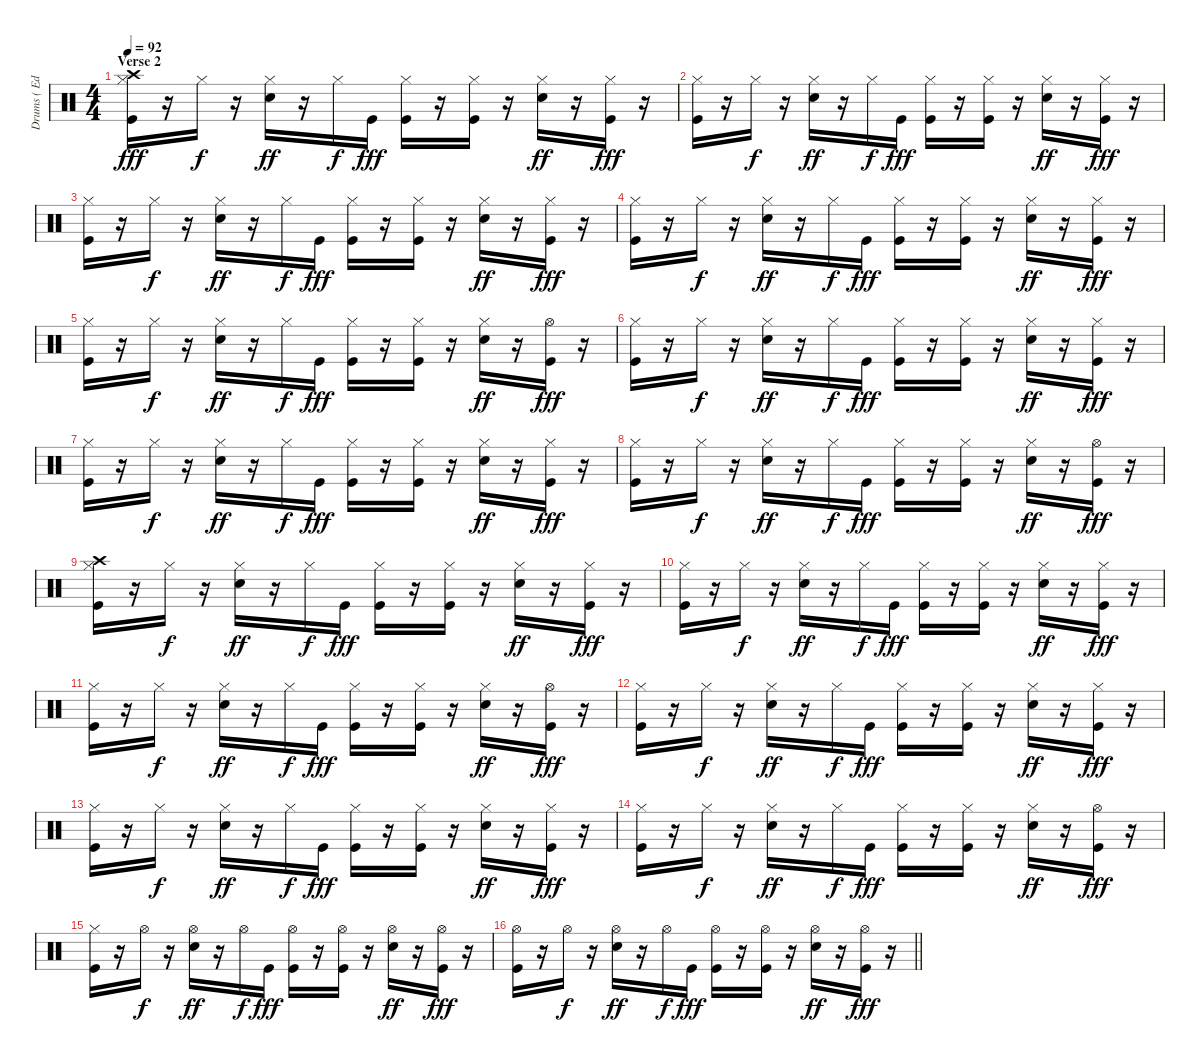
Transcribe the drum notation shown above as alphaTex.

\track ("Drums ( Edward O'Brien )" "Drums ( Ed") {instrument percussion}
\staff {score}
\articulation defaults
\ts (4 4)
\section ("" "Verse 2")
\tempo 92
\clef neutral
\ks c
("Crash high (hit)" "Hi-Hat (closed)" "Kick (hit)").16{dy fff} r.16 "Hi-Hat (closed)".16{dy f} r.16 ("Hi-Hat (closed)" "Electric Snare (hit)").16{dy ff} r.16 "Hi-Hat (closed)".16{dy f} "Kick (hit)".16{dy fff} ("Hi-Hat (closed)" "Kick (hit)").16 r.16 ("Hi-Hat (closed)" "Kick (hit)").16 r.16 ("Hi-Hat (closed)" "Electric Snare (hit)").16{dy ff} r.16 ("Hi-Hat (closed)" "Kick (hit)").16{dy fff} r.16 |
("Hi-Hat (closed)" "Kick (hit)").16 r.16 "Hi-Hat (closed)".16{dy f} r.16 ("Hi-Hat (closed)" "Electric Snare (hit)").16{dy ff} r.16 "Hi-Hat (closed)".16{dy f} "Kick (hit)".16{dy fff} ("Hi-Hat (closed)" "Kick (hit)").16 r.16 ("Hi-Hat (closed)" "Kick (hit)").16 r.16 ("Hi-Hat (closed)" "Electric Snare (hit)").16{dy ff} r.16 ("Hi-Hat (closed)" "Kick (hit)").16{dy fff} r.16 |
("Hi-Hat (closed)" "Kick (hit)").16 r.16 "Hi-Hat (closed)".16{dy f} r.16 ("Hi-Hat (closed)" "Electric Snare (hit)").16{dy ff} r.16 "Hi-Hat (closed)".16{dy f} "Kick (hit)".16{dy fff} ("Hi-Hat (closed)" "Kick (hit)").16 r.16 ("Hi-Hat (closed)" "Kick (hit)").16 r.16 ("Hi-Hat (closed)" "Electric Snare (hit)").16{dy ff} r.16 ("Hi-Hat (closed)" "Kick (hit)").16{dy fff} r.16 |
("Hi-Hat (closed)" "Kick (hit)").16 r.16 "Hi-Hat (closed)".16{dy f} r.16 ("Hi-Hat (closed)" "Electric Snare (hit)").16{dy ff} r.16 "Hi-Hat (closed)".16{dy f} "Kick (hit)".16{dy fff} ("Hi-Hat (closed)" "Kick (hit)").16 r.16 ("Hi-Hat (closed)" "Kick (hit)").16 r.16 ("Hi-Hat (closed)" "Electric Snare (hit)").16{dy ff} r.16 ("Hi-Hat (closed)" "Kick (hit)").16{dy fff} r.16 |
("Hi-Hat (closed)" "Kick (hit)").16 r.16 "Hi-Hat (closed)".16{dy f} r.16 ("Hi-Hat (closed)" "Electric Snare (hit)").16{dy ff} r.16 "Hi-Hat (closed)".16{dy f} "Kick (hit)".16{dy fff} ("Hi-Hat (closed)" "Kick (hit)").16 r.16 ("Hi-Hat (closed)" "Kick (hit)").16 r.16 ("Hi-Hat (closed)" "Electric Snare (hit)").16{dy ff} r.16 ("Hi-Hat (open)" "Kick (hit)").16{dy fff} r.16 |
("Hi-Hat (closed)" "Kick (hit)").16 r.16 "Hi-Hat (closed)".16{dy f} r.16 ("Hi-Hat (closed)" "Electric Snare (hit)").16{dy ff} r.16 "Hi-Hat (closed)".16{dy f} "Kick (hit)".16{dy fff} ("Hi-Hat (closed)" "Kick (hit)").16 r.16 ("Hi-Hat (closed)" "Kick (hit)").16 r.16 ("Hi-Hat (closed)" "Electric Snare (hit)").16{dy ff} r.16 ("Hi-Hat (closed)" "Kick (hit)").16{dy fff} r.16 |
("Hi-Hat (closed)" "Kick (hit)").16 r.16 "Hi-Hat (closed)".16{dy f} r.16 ("Hi-Hat (closed)" "Electric Snare (hit)").16{dy ff} r.16 "Hi-Hat (closed)".16{dy f} "Kick (hit)".16{dy fff} ("Hi-Hat (closed)" "Kick (hit)").16 r.16 ("Hi-Hat (closed)" "Kick (hit)").16 r.16 ("Hi-Hat (closed)" "Electric Snare (hit)").16{dy ff} r.16 ("Hi-Hat (closed)" "Kick (hit)").16{dy fff} r.16 |
("Hi-Hat (closed)" "Kick (hit)").16 r.16 "Hi-Hat (closed)".16{dy f} r.16 ("Hi-Hat (closed)" "Electric Snare (hit)").16{dy ff} r.16 "Hi-Hat (closed)".16{dy f} "Kick (hit)".16{dy fff} ("Hi-Hat (closed)" "Kick (hit)").16 r.16 ("Hi-Hat (closed)" "Kick (hit)").16 r.16 ("Hi-Hat (closed)" "Electric Snare (hit)").16{dy ff} r.16 ("Hi-Hat (open)" "Kick (hit)").16{dy fff} r.16 |
("Crash high (hit)" "Hi-Hat (closed)" "Kick (hit)").16 r.16 "Hi-Hat (closed)".16{dy f} r.16 ("Hi-Hat (closed)" "Electric Snare (hit)").16{dy ff} r.16 "Hi-Hat (closed)".16{dy f} "Kick (hit)".16{dy fff} ("Hi-Hat (closed)" "Kick (hit)").16 r.16 ("Hi-Hat (closed)" "Kick (hit)").16 r.16 ("Hi-Hat (closed)" "Electric Snare (hit)").16{dy ff} r.16 ("Hi-Hat (closed)" "Kick (hit)").16{dy fff} r.16 |
("Hi-Hat (closed)" "Kick (hit)").16 r.16 "Hi-Hat (closed)".16{dy f} r.16 ("Hi-Hat (closed)" "Electric Snare (hit)").16{dy ff} r.16 "Hi-Hat (closed)".16{dy f} "Kick (hit)".16{dy fff} ("Hi-Hat (closed)" "Kick (hit)").16 r.16 ("Hi-Hat (closed)" "Kick (hit)").16 r.16 ("Hi-Hat (closed)" "Electric Snare (hit)").16{dy ff} r.16 ("Hi-Hat (closed)" "Kick (hit)").16{dy fff} r.16 |
("Hi-Hat (closed)" "Kick (hit)").16 r.16 "Hi-Hat (closed)".16{dy f} r.16 ("Hi-Hat (closed)" "Electric Snare (hit)").16{dy ff} r.16 "Hi-Hat (closed)".16{dy f} "Kick (hit)".16{dy fff} ("Hi-Hat (closed)" "Kick (hit)").16 r.16 ("Hi-Hat (closed)" "Kick (hit)").16 r.16 ("Hi-Hat (closed)" "Electric Snare (hit)").16{dy ff} r.16 ("Hi-Hat (open)" "Kick (hit)").16{dy fff} r.16 |
("Hi-Hat (closed)" "Kick (hit)").16 r.16 "Hi-Hat (closed)".16{dy f} r.16 ("Hi-Hat (closed)" "Electric Snare (hit)").16{dy ff} r.16 "Hi-Hat (closed)".16{dy f} "Kick (hit)".16{dy fff} ("Hi-Hat (closed)" "Kick (hit)").16 r.16 ("Hi-Hat (closed)" "Kick (hit)").16 r.16 ("Hi-Hat (closed)" "Electric Snare (hit)").16{dy ff} r.16 ("Hi-Hat (closed)" "Kick (hit)").16{dy fff} r.16 |
("Hi-Hat (closed)" "Kick (hit)").16 r.16 "Hi-Hat (closed)".16{dy f} r.16 ("Hi-Hat (closed)" "Electric Snare (hit)").16{dy ff} r.16 "Hi-Hat (closed)".16{dy f} "Kick (hit)".16{dy fff} ("Hi-Hat (closed)" "Kick (hit)").16 r.16 ("Hi-Hat (closed)" "Kick (hit)").16 r.16 ("Hi-Hat (closed)" "Electric Snare (hit)").16{dy ff} r.16 ("Hi-Hat (closed)" "Kick (hit)").16{dy fff} r.16 |
("Hi-Hat (closed)" "Kick (hit)").16 r.16 "Hi-Hat (closed)".16{dy f} r.16 ("Hi-Hat (closed)" "Electric Snare (hit)").16{dy ff} r.16 "Hi-Hat (closed)".16{dy f} "Kick (hit)".16{dy fff} ("Hi-Hat (closed)" "Kick (hit)").16 r.16 ("Hi-Hat (closed)" "Kick (hit)").16 r.16 ("Hi-Hat (closed)" "Electric Snare (hit)").16{dy ff} r.16 ("Hi-Hat (open)" "Kick (hit)").16{dy fff} r.16 |
("Hi-Hat (closed)" "Kick (hit)").16 r.16 "Hi-Hat (open)".16{dy f} r.16 ("Hi-Hat (open)" "Electric Snare (hit)").16{dy ff} r.16 "Hi-Hat (open)".16{dy f} "Kick (hit)".16{dy fff} ("Hi-Hat (open)" "Kick (hit)").16 r.16 ("Hi-Hat (open)" "Kick (hit)").16 r.16 ("Hi-Hat (open)" "Electric Snare (hit)").16{dy ff} r.16 ("Hi-Hat (open)" "Kick (hit)").16{dy fff} r.16 |
\barLineRight lightlight
("Hi-Hat (open)" "Kick (hit)").16 r.16 "Hi-Hat (open)".16{dy f} r.16 ("Hi-Hat (open)" "Electric Snare (hit)").16{dy ff} r.16 "Hi-Hat (open)".16{dy f} "Kick (hit)".16{dy fff} ("Hi-Hat (open)" "Kick (hit)").16 r.16 ("Hi-Hat (open)" "Kick (hit)").16 r.16 ("Hi-Hat (open)" "Electric Snare (hit)").16{dy ff} r.16 ("Hi-Hat (open)" "Kick (hit)").16{dy fff} r.16
